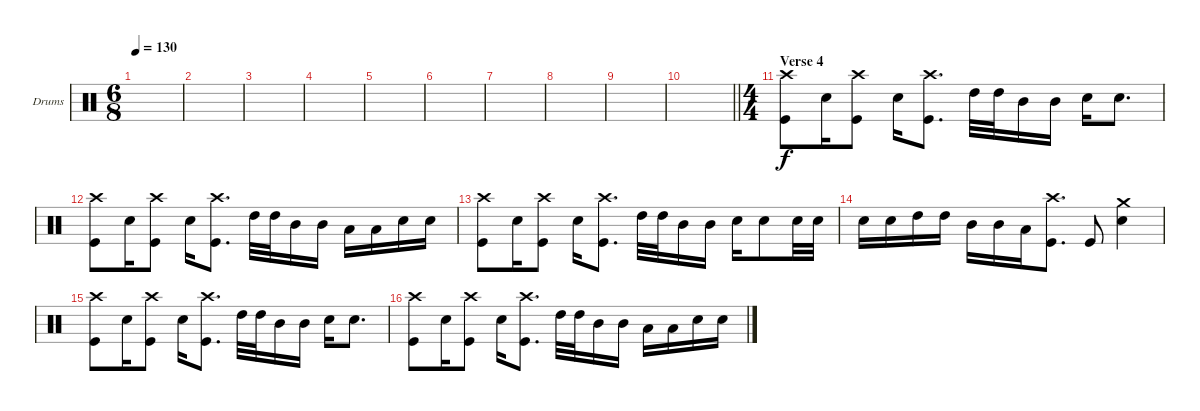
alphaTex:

\bracketExtendMode groupsimilarinstruments
\firstSystemTrackNameOrientation horizontal
\otherSystemsTrackNameOrientation horizontal
\track ("drums (Anton Zulganov)" "Drums") {instrument percussion}
\staff {score}
\articulation defaults
\ts (6 8)
\tempo 130
\clef neutral
\ks aminor
|
|
|
|
|
|
|
|
|
\barLineRight lightlight
|
\ts (4 4)
\beaming (8 2 2 2 2)
\section ("" "Verse 4")
("Kick (hit)" "Crash high (hit)").8 "Snare (hit) 2".16 ("Crash high (hit)" "Kick (hit)").8 "Snare (hit) 2".16 ("Crash high (hit)" "Kick (hit)").8{d} "High Tom (hit)".32 "High Tom (hit)".32 "Mid Tom (hit)".16 "Mid Tom (hit)".16 "Snare (hit) 2".16 "Snare (hit) 2".8{d} |
("Kick (hit)" "Crash high (hit)").8 "Snare (hit) 2".16 ("Crash high (hit)" "Kick (hit)").8 "Snare (hit) 2".16 ("Crash high (hit)" "Kick (hit)").8{d} "High Tom (hit)".32 "High Tom (hit)".32 "Mid Tom (hit)".16 "Mid Tom (hit)".16 "Low Tom (hit)".16 "Low Tom (hit)".16 "Snare (hit) 2".16 "Snare (hit) 2".16 |
("Kick (hit)" "Crash high (hit)").8 "Snare (hit) 2".16 ("Crash high (hit)" "Kick (hit)").8 "Snare (hit) 2".16 ("Crash high (hit)" "Kick (hit)").8{d} "High Tom (hit)".32 "High Tom (hit)".32 "Mid Tom (hit)".16 "Mid Tom (hit)".16 "Snare (hit) 2".16 "Snare (hit) 2".8 "Snare (hit) 2".32 "Snare (hit) 2".32 |
"Snare (hit) 2".16 "Snare (hit) 2".16 "High Tom (hit)".16 "High Tom (hit)".16 "Mid Tom (hit)".16 "Mid Tom (hit)".16 "Low Tom (hit)".16 ("Kick (hit)" "Crash high (hit)").8{d} "Kick (hit)".8 ("Snare (hit) 2" "Crash medium (hit)").4 |
("Kick (hit)" "Crash high (hit)").8 "Snare (hit) 2".16 ("Crash high (hit)" "Kick (hit)").8 "Snare (hit) 2".16 ("Crash high (hit)" "Kick (hit)").8{d} "High Tom (hit)".32 "High Tom (hit)".32 "Mid Tom (hit)".16 "Mid Tom (hit)".16 "Snare (hit) 2".16 "Snare (hit) 2".8{d} |
("Kick (hit)" "Crash high (hit)").8 "Snare (hit) 2".16 ("Crash high (hit)" "Kick (hit)").8 "Snare (hit) 2".16 ("Crash high (hit)" "Kick (hit)").8{d} "High Tom (hit)".32 "High Tom (hit)".32 "Mid Tom (hit)".16 "Mid Tom (hit)".16 "Low Tom (hit)".16 "Low Tom (hit)".16 "Snare (hit) 2".16 "Snare (hit) 2".16
